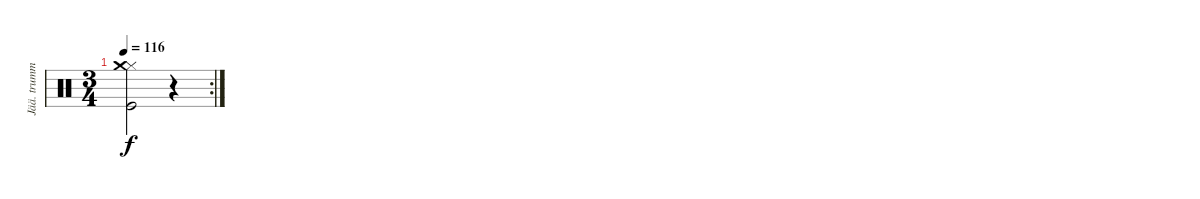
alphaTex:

\track ("Jää. trummor" "Jää. trumm") {instrument percussion}
\staff {score}
\articulation defaults
\rc 2
\ts (3 4)
\tempo 116
\clef neutral
\ks c
("Hi-Hat (closed)" "Kick (hit)" "Crash medium (hit)").2{dy f} r.4
